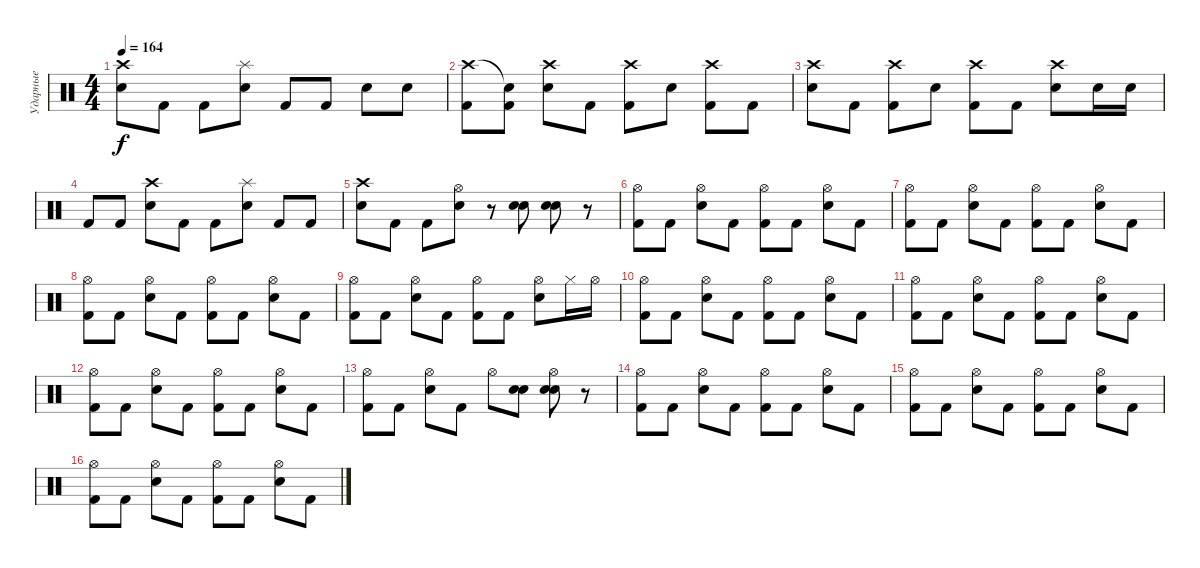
\track ("Ударные" "Ударные") {instrument percussion}
\staff {score}
\articulation defaults
\ts (4 4)
\tempo 164
\clef neutral
\ks c
("Crash high (hit)" "Snare (hit) 2").8{dy f} "Kick (hit) 2".8 "Kick (hit) 2".8 ("Splash (hit)" "Snare (hit) 2").8 "Kick (hit) 2".8 "Kick (hit) 2".8 "Snare (hit) 2".8 "Snare (hit) 2".8 |
("Crash high (hit)" "Kick (hit) 2").8 ("Snare (hit)"{t} "Kick (hit) 2").8 ("Crash high (hit)" "Snare (hit) 2").8 "Kick (hit) 2".8 ("Crash high (hit)" "Kick (hit) 2").8 "Snare (hit) 2".8 ("Crash high (hit)" "Kick (hit) 2").8 "Kick (hit) 2".8 |
("Crash high (hit)" "Snare (hit) 2").8 "Kick (hit) 2".8 ("Crash high (hit)" "Kick (hit) 2").8 "Snare (hit) 2".8 ("Crash high (hit)" "Kick (hit) 2").8 "Kick (hit) 2".8 ("Crash high (hit)" "Snare (hit) 2").8 "Snare (hit) 2".16 "Snare (hit) 2".16 |
"Kick (hit) 2".8 "Kick (hit) 2".8 ("Crash high (hit)" "Snare (hit) 2").8 "Kick (hit) 2".8 "Kick (hit) 2".8 ("Splash (hit)" "Snare (hit) 2").8 "Kick (hit) 2".8 "Kick (hit) 2".8 |
("Crash high (hit)" "Snare (hit) 2").8 "Kick (hit) 2".8 "Kick (hit) 2".8 ("Hi-Hat (open)" "Snare (hit) 2").8 r.8 ("Snare (hit) 2" "Snare (hit) 2").8 ("Snare (hit) 2" "Snare (hit) 2").8 r.8 |
("Hi-Hat (open)" "Kick (hit) 2").8 "Kick (hit) 2".8 ("Hi-Hat (open)" "Snare (hit) 2").8 "Kick (hit) 2".8 ("Hi-Hat (open)" "Kick (hit) 2").8 "Kick (hit) 2".8 ("Hi-Hat (open)" "Snare (hit) 2").8 "Kick (hit) 2".8 |
("Hi-Hat (open)" "Kick (hit) 2").8 "Kick (hit) 2".8 ("Hi-Hat (open)" "Snare (hit) 2").8 "Kick (hit) 2".8 ("Hi-Hat (open)" "Kick (hit) 2").8 "Kick (hit) 2".8 ("Hi-Hat (open)" "Snare (hit) 2").8 "Kick (hit) 2".8 |
("Hi-Hat (open)" "Kick (hit) 2").8 "Kick (hit) 2".8 ("Hi-Hat (open)" "Snare (hit) 2").8 "Kick (hit) 2".8 ("Hi-Hat (open)" "Kick (hit) 2").8 "Kick (hit) 2".8 ("Hi-Hat (open)" "Snare (hit) 2").8 "Kick (hit) 2".8 |
("Hi-Hat (open)" "Kick (hit) 2").8 "Kick (hit) 2".8 ("Hi-Hat (open)" "Snare (hit) 2").8 "Kick (hit) 2".8 ("Hi-Hat (open)" "Kick (hit) 2").8 "Kick (hit) 2".8 ("Hi-Hat (open)" "Snare (hit) 2").8 "Hi-Hat (closed)".16 "Hi-Hat (open)".16 |
("Hi-Hat (open)" "Kick (hit) 2").8 "Kick (hit) 2".8 ("Hi-Hat (open)" "Snare (hit) 2").8 "Kick (hit) 2".8 ("Hi-Hat (open)" "Kick (hit) 2").8 "Kick (hit) 2".8 ("Hi-Hat (open)" "Snare (hit) 2").8 "Kick (hit) 2".8 |
("Hi-Hat (open)" "Kick (hit) 2").8 "Kick (hit) 2".8 ("Hi-Hat (open)" "Snare (hit) 2").8 "Kick (hit) 2".8 ("Hi-Hat (open)" "Kick (hit) 2").8 "Kick (hit) 2".8 ("Hi-Hat (open)" "Snare (hit) 2").8 "Kick (hit) 2".8 |
("Hi-Hat (open)" "Kick (hit) 2").8 "Kick (hit) 2".8 ("Hi-Hat (open)" "Snare (hit) 2").8 "Kick (hit) 2".8 ("Hi-Hat (open)" "Kick (hit) 2").8 "Kick (hit) 2".8 ("Hi-Hat (open)" "Snare (hit) 2").8 "Kick (hit) 2".8 |
("Hi-Hat (open)" "Kick (hit) 2").8 "Kick (hit) 2".8 ("Hi-Hat (open)" "Snare (hit) 2").8 "Kick (hit) 2".8 "Hi-Hat (open)".8 ("Snare (hit) 2" "Snare (hit) 2").8 ("Hi-Hat (open)" "Snare (hit) 2" "Snare (hit) 2").8 r.8 |
("Hi-Hat (open)" "Kick (hit) 2").8 "Kick (hit) 2".8 ("Hi-Hat (open)" "Snare (hit) 2").8 "Kick (hit) 2".8 ("Hi-Hat (open)" "Kick (hit) 2").8 "Kick (hit) 2".8 ("Hi-Hat (open)" "Snare (hit) 2").8 "Kick (hit) 2".8 |
("Hi-Hat (open)" "Kick (hit) 2").8 "Kick (hit) 2".8 ("Hi-Hat (open)" "Snare (hit) 2").8 "Kick (hit) 2".8 ("Hi-Hat (open)" "Kick (hit) 2").8 "Kick (hit) 2".8 ("Hi-Hat (open)" "Snare (hit) 2").8 "Kick (hit) 2".8 |
("Hi-Hat (open)" "Kick (hit) 2").8 "Kick (hit) 2".8 ("Hi-Hat (open)" "Snare (hit) 2").8 "Kick (hit) 2".8 ("Hi-Hat (open)" "Kick (hit) 2").8 "Kick (hit) 2".8 ("Hi-Hat (open)" "Snare (hit) 2").8 "Kick (hit) 2".8
